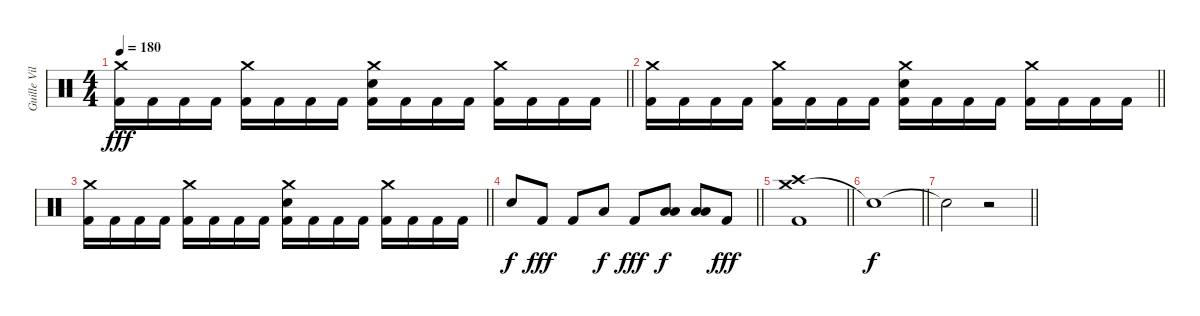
\track ("Guille Vila" "Guille Vil") {instrument percussion}
\staff {score}
\articulation defaults
\ts (4 4)
\tempo 180
\clef neutral
\barLineRight lightlight
\ks c
("Crash medium (hit)" "Kick (hit) 2").16{dy fff} "Kick (hit) 2".16 "Kick (hit) 2".16 "Kick (hit) 2".16 ("Crash medium (hit)" "Kick (hit) 2").16 "Kick (hit) 2".16 "Kick (hit) 2".16 "Kick (hit) 2".16 ("Crash medium (hit)" "Snare (hit) 2" "Kick (hit) 2").16 "Kick (hit) 2".16 "Kick (hit) 2".16 "Kick (hit) 2".16 ("Crash medium (hit)" "Kick (hit) 2").16 "Kick (hit) 2".16 "Kick (hit) 2".16 "Kick (hit) 2".16 |
\barLineRight lightlight
("Crash medium (hit)" "Kick (hit) 2").16 "Kick (hit) 2".16 "Kick (hit) 2".16 "Kick (hit) 2".16 ("Crash medium (hit)" "Kick (hit) 2").16 "Kick (hit) 2".16 "Kick (hit) 2".16 "Kick (hit) 2".16 ("Crash medium (hit)" "Snare (hit) 2" "Kick (hit) 2").16 "Kick (hit) 2".16 "Kick (hit) 2".16 "Kick (hit) 2".16 ("Crash medium (hit)" "Kick (hit) 2").16 "Kick (hit) 2".16 "Kick (hit) 2".16 "Kick (hit) 2".16 |
\barLineRight lightlight
("Crash medium (hit)" "Kick (hit) 2").16 "Kick (hit) 2".16 "Kick (hit) 2".16 "Kick (hit) 2".16 ("Crash medium (hit)" "Kick (hit) 2").16 "Kick (hit) 2".16 "Kick (hit) 2".16 "Kick (hit) 2".16 ("Crash medium (hit)" "Snare (hit) 2" "Kick (hit) 2").16 "Kick (hit) 2".16 "Kick (hit) 2".16 "Kick (hit) 2".16 ("Crash medium (hit)" "Kick (hit) 2").16 "Kick (hit) 2".16 "Kick (hit) 2".16 "Kick (hit) 2".16 |
\barLineRight lightlight "Snare (hit) 2".8{dy f} "Kick (hit) 2".8{dy fff} "Kick (hit) 2".8 "Low Tom (hit)".8{dy f} "Kick (hit) 2".8{dy fff}
("Low Floor Tom (hit)" "Low Tom (hit)").8{dy f} ("Low Floor Tom (hit)" "Low Tom (hit)").8 "Kick (hit) 2".8{dy fff} |
\barLineRight lightlight
("Crash medium (hit)" "Crash high (hit)" "Kick (hit) 2").1 |
\barLineRight lightlight "Snare (hit)"{t}.1{dy f}
|
\barLineRight lightlight "Snare (hit)"{t}.2
r.2
